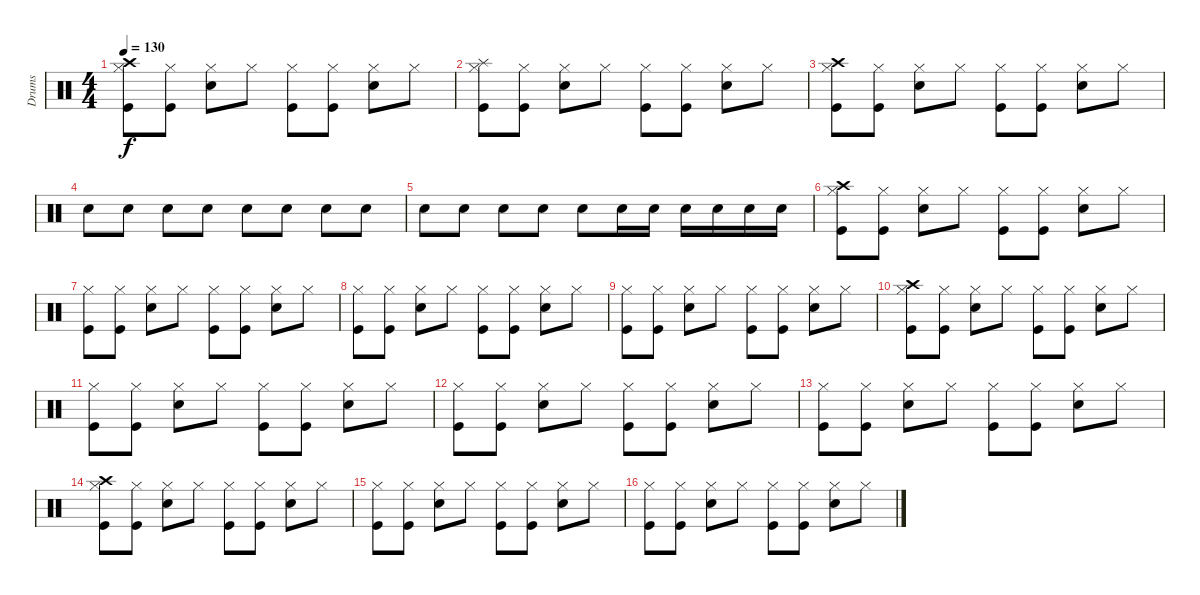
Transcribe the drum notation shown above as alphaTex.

\track ("Drums" "Drums") {instrument percussion}
\staff {score}
\articulation defaults
\ts (4 4)
\tempo 130
\clef neutral
\ks c
("Hi-Hat (closed)" "Kick (hit)" "Crash high (hit)").8{dy f} ("Hi-Hat (closed)" "Kick (hit)").8 ("Hi-Hat (closed)" "Snare (hit) 2").8 "Hi-Hat (closed)".8 ("Hi-Hat (closed)" "Kick (hit)").8 ("Hi-Hat (closed)" "Kick (hit)").8 ("Hi-Hat (closed)" "Snare (hit) 2").8 "Hi-Hat (closed)".8 |
("Hi-Hat (closed)" "Kick (hit)" "Splash (hit)").8 ("Hi-Hat (closed)" "Kick (hit)").8 ("Hi-Hat (closed)" "Snare (hit) 2").8 "Hi-Hat (closed)".8 ("Hi-Hat (closed)" "Kick (hit)").8 ("Hi-Hat (closed)" "Kick (hit)").8 ("Hi-Hat (closed)" "Snare (hit) 2").8 "Hi-Hat (closed)".8 |
("Hi-Hat (closed)" "Kick (hit)" "Crash high (hit)").8 ("Hi-Hat (closed)" "Kick (hit)").8 ("Hi-Hat (closed)" "Snare (hit) 2").8 "Hi-Hat (closed)".8 ("Hi-Hat (closed)" "Kick (hit)").8 ("Hi-Hat (closed)" "Kick (hit)").8 ("Hi-Hat (closed)" "Snare (hit) 2").8 "Hi-Hat (closed)".8 |
"Snare (hit) 2".8 "Snare (hit) 2".8 "Snare (hit) 2".8 "Snare (hit) 2".8 "Snare (hit) 2".8 "Snare (hit) 2".8 "Snare (hit) 2".8 "Snare (hit) 2".8 |
"Snare (hit) 2".8 "Snare (hit) 2".8 "Snare (hit) 2".8 "Snare (hit) 2".8 "Snare (hit) 2".8 "Snare (hit) 2".16 "Snare (hit) 2".16 "Snare (hit) 2".16 "Snare (hit) 2".16 "Snare (hit) 2".16 "Snare (hit) 2".16 |
("Hi-Hat (closed)" "Kick (hit)" "Crash high (hit)").8 ("Hi-Hat (closed)" "Kick (hit)").8 ("Hi-Hat (closed)" "Snare (hit) 2").8 "Hi-Hat (closed)".8 ("Hi-Hat (closed)" "Kick (hit)").8 ("Hi-Hat (closed)" "Kick (hit)").8 ("Hi-Hat (closed)" "Snare (hit) 2").8 "Hi-Hat (closed)".8 |
("Hi-Hat (closed)" "Kick (hit)").8 ("Hi-Hat (closed)" "Kick (hit)").8 ("Hi-Hat (closed)" "Snare (hit) 2").8 "Hi-Hat (closed)".8 ("Hi-Hat (closed)" "Kick (hit)").8 ("Hi-Hat (closed)" "Kick (hit)").8 ("Hi-Hat (closed)" "Snare (hit) 2").8 "Hi-Hat (closed)".8 |
("Hi-Hat (closed)" "Kick (hit)").8 ("Hi-Hat (closed)" "Kick (hit)").8 ("Hi-Hat (closed)" "Snare (hit) 2").8 "Hi-Hat (closed)".8 ("Hi-Hat (closed)" "Kick (hit)").8 ("Hi-Hat (closed)" "Kick (hit)").8 ("Hi-Hat (closed)" "Snare (hit) 2").8 "Hi-Hat (closed)".8 |
("Hi-Hat (closed)" "Kick (hit)").8 ("Hi-Hat (closed)" "Kick (hit)").8 ("Hi-Hat (closed)" "Snare (hit) 2").8 "Hi-Hat (closed)".8 ("Hi-Hat (closed)" "Kick (hit)").8 ("Hi-Hat (closed)" "Kick (hit)").8 ("Hi-Hat (closed)" "Snare (hit) 2").8 "Hi-Hat (closed)".8 |
("Hi-Hat (closed)" "Kick (hit)" "Crash high (hit)").8 ("Hi-Hat (closed)" "Kick (hit)").8 ("Hi-Hat (closed)" "Snare (hit) 2").8 "Hi-Hat (closed)".8 ("Hi-Hat (closed)" "Kick (hit)").8 ("Hi-Hat (closed)" "Kick (hit)").8 ("Hi-Hat (closed)" "Snare (hit) 2").8 "Hi-Hat (closed)".8 |
("Hi-Hat (closed)" "Kick (hit)").8 ("Hi-Hat (closed)" "Kick (hit)").8 ("Hi-Hat (closed)" "Snare (hit) 2").8 "Hi-Hat (closed)".8 ("Hi-Hat (closed)" "Kick (hit)").8 ("Hi-Hat (closed)" "Kick (hit)").8 ("Hi-Hat (closed)" "Snare (hit) 2").8 "Hi-Hat (closed)".8 |
("Hi-Hat (closed)" "Kick (hit)").8 ("Hi-Hat (closed)" "Kick (hit)").8 ("Hi-Hat (closed)" "Snare (hit) 2").8 "Hi-Hat (closed)".8 ("Hi-Hat (closed)" "Kick (hit)").8 ("Hi-Hat (closed)" "Kick (hit)").8 ("Hi-Hat (closed)" "Snare (hit) 2").8 "Hi-Hat (closed)".8 |
("Hi-Hat (closed)" "Kick (hit)").8 ("Hi-Hat (closed)" "Kick (hit)").8 ("Hi-Hat (closed)" "Snare (hit) 2").8 "Hi-Hat (closed)".8 ("Hi-Hat (closed)" "Kick (hit)").8 ("Hi-Hat (closed)" "Kick (hit)").8 ("Hi-Hat (closed)" "Snare (hit) 2").8 "Hi-Hat (closed)".8 |
("Hi-Hat (closed)" "Kick (hit)" "Crash high (hit)").8 ("Hi-Hat (closed)" "Kick (hit)").8 ("Hi-Hat (closed)" "Snare (hit) 2").8 "Hi-Hat (closed)".8 ("Hi-Hat (closed)" "Kick (hit)").8 ("Hi-Hat (closed)" "Kick (hit)").8 ("Hi-Hat (closed)" "Snare (hit) 2").8 "Hi-Hat (closed)".8 |
("Hi-Hat (closed)" "Kick (hit)").8 ("Hi-Hat (closed)" "Kick (hit)").8 ("Hi-Hat (closed)" "Snare (hit) 2").8 "Hi-Hat (closed)".8 ("Hi-Hat (closed)" "Kick (hit)").8 ("Hi-Hat (closed)" "Kick (hit)").8 ("Hi-Hat (closed)" "Snare (hit) 2").8 "Hi-Hat (closed)".8 |
("Hi-Hat (closed)" "Kick (hit)").8 ("Hi-Hat (closed)" "Kick (hit)").8 ("Hi-Hat (closed)" "Snare (hit) 2").8 "Hi-Hat (closed)".8 ("Hi-Hat (closed)" "Kick (hit)").8 ("Hi-Hat (closed)" "Kick (hit)").8 ("Hi-Hat (closed)" "Snare (hit) 2").8 "Hi-Hat (closed)".8
